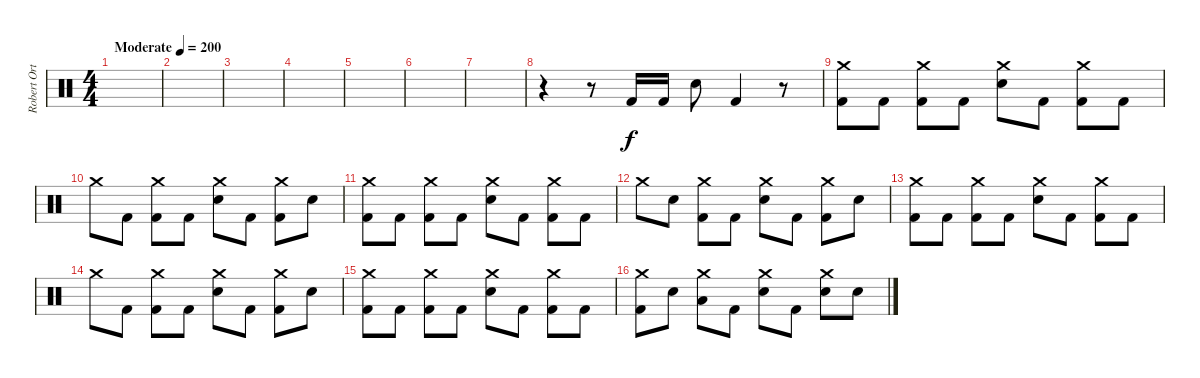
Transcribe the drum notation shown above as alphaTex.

\track ("Robert Ortiz - Drums" "Robert Ort") {instrument percussion}
\staff {score}
\articulation defaults
\ts (4 4)
\tempo (200 "Moderate")
\clef neutral
\ks c
|
|
|
|
|
|
|
r.4 r.8 "Kick (hit) 2".16 "Kick (hit) 2".16 "Electric Snare (hit)".8 "Kick (hit) 2".4 r.8 |
("Crash medium (hit)" "Kick (hit) 2").8 "Kick (hit) 2".8 ("Crash medium (hit)" "Kick (hit) 2").8 "Kick (hit) 2".8 ("Crash medium (hit)" "Electric Snare (hit)").8 "Kick (hit) 2".8 ("Crash medium (hit)" "Kick (hit) 2").8 "Kick (hit) 2".8 |
"Crash medium (hit)".8 "Kick (hit) 2".8 ("Crash medium (hit)" "Kick (hit) 2").8 "Kick (hit) 2".8 ("Crash medium (hit)" "Electric Snare (hit)").8 "Kick (hit) 2".8 ("Crash medium (hit)" "Kick (hit) 2").8 "Electric Snare (hit)".8 |
("Crash medium (hit)" "Kick (hit) 2").8 "Kick (hit) 2".8 ("Crash medium (hit)" "Kick (hit) 2").8 "Kick (hit) 2".8 ("Crash medium (hit)" "Electric Snare (hit)").8 "Kick (hit) 2".8 ("Crash medium (hit)" "Kick (hit) 2").8 "Kick (hit) 2".8 |
"Crash medium (hit)".8 "Electric Snare (hit)".8 ("Crash medium (hit)" "Kick (hit) 2").8 "Kick (hit) 2".8 ("Crash medium (hit)" "Electric Snare (hit)").8 "Kick (hit) 2".8 ("Crash medium (hit)" "Kick (hit) 2").8 "Electric Snare (hit)".8 |
("Crash medium (hit)" "Kick (hit) 2").8 "Kick (hit) 2".8 ("Crash medium (hit)" "Kick (hit) 2").8 "Kick (hit) 2".8 ("Crash medium (hit)" "Electric Snare (hit)").8 "Kick (hit) 2".8 ("Crash medium (hit)" "Kick (hit) 2").8 "Kick (hit) 2".8 |
"Crash medium (hit)".8 "Kick (hit) 2".8 ("Crash medium (hit)" "Kick (hit) 2").8 "Kick (hit) 2".8 ("Crash medium (hit)" "Electric Snare (hit)").8 "Kick (hit) 2".8 ("Crash medium (hit)" "Kick (hit) 2").8 "Electric Snare (hit)".8 |
("Crash medium (hit)" "Kick (hit) 2").8 "Kick (hit) 2".8 ("Crash medium (hit)" "Kick (hit) 2").8 "Kick (hit) 2".8 ("Crash medium (hit)" "Electric Snare (hit)").8 "Kick (hit) 2".8 ("Crash medium (hit)" "Kick (hit) 2").8 "Kick (hit) 2".8 |
("Crash medium (hit)" "Kick (hit) 2").8 "Electric Snare (hit)".8 ("Crash medium (hit)" "Low Tom (hit)").8 "Kick (hit) 2".8 ("Crash medium (hit)" "Electric Snare (hit)").8 "Kick (hit) 2".8 ("Crash medium (hit)" "Electric Snare (hit)").8 "Electric Snare (hit)".8
